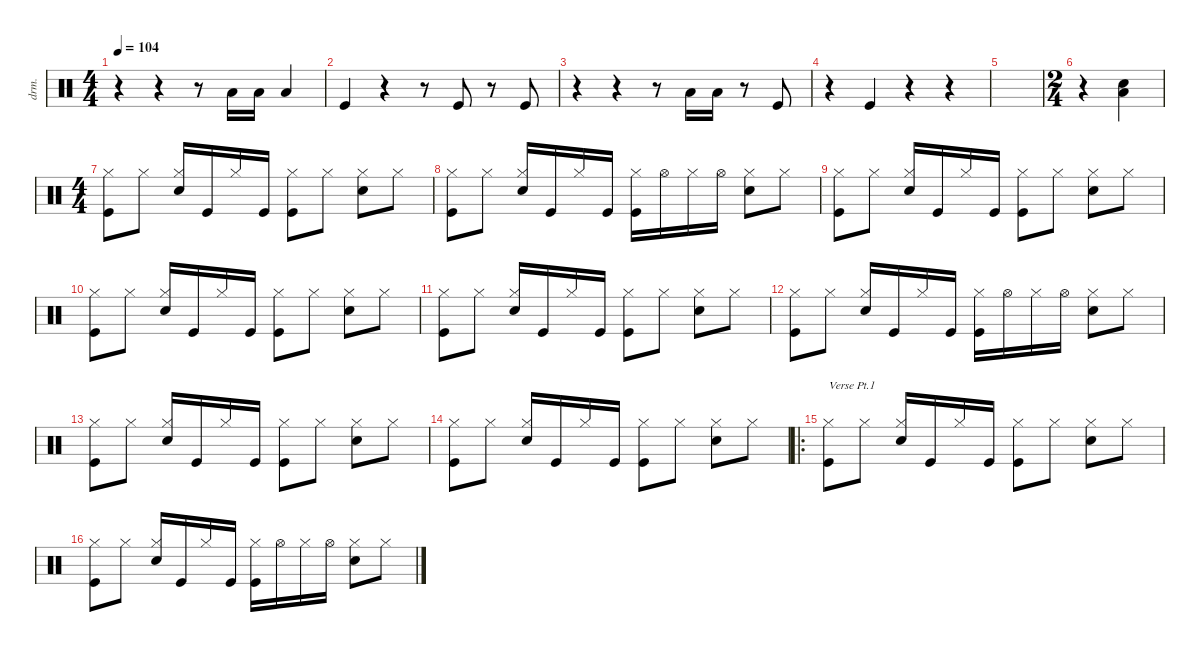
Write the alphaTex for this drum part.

\defaultSystemsLayout 4
\hideDynamics
\bracketExtendMode nobrackets
\otherSystemsTrackNameOrientation horizontal
\track ("Drumkit" "drm.") {instrument percussion}
\staff {score}
\articulation defaults
\ts (4 4)
\tempo 104
\clef neutral
\ks c
r.4{dy mf beam Down} r.4{beam Down} r.8{beam Down} "Low Tom (hit)".16{beam Up} "Low Tom (hit)".16{beam Up} "Low Tom (hit)".4{beam Up} |
"Kick (hit)".4{beam Up} r.4{beam Up} r.8{beam Up} "Kick (hit)".8{beam Up} r.8{beam Up} "Kick (hit)".8{beam Up} |
r.4{beam Down} r.4{beam Down} r.8{beam Down} "Low Tom (hit)".16{beam Up} "Low Tom (hit)".16{beam Up} r.8{beam Up} "Kick (hit)".8{beam Up} |
r.4{beam Down} "Kick (hit)".4{beam Up} r.4{beam Up} r.4{beam Up} |
\beaming (8 2 2 2 2)
|
\ts (2 4)
\beaming (8 2 2)
r.4{beam Down} ("Low Tom (hit)" "Snare (hit) 2").4{beam Down} |
\ts (4 4)
\beaming (8 2 2 2 2)
("Kick (hit)" "Hi-Hat (closed)").8{beam Down} "Hi-Hat (closed)".8{beam Down} ("Hi-Hat (closed)" "Snare (hit) 2").16{beam Up} "Kick (hit)".16{beam Up} "Hi-Hat (closed)".16{beam Up} "Kick (hit)".16{beam Up} ("Hi-Hat (closed)" "Kick (hit)").8{beam Down} "Hi-Hat (closed)".8{beam Down} ("Hi-Hat (closed)" "Snare (hit) 2").8{beam Down} "Hi-Hat (closed)".8{beam Down} |
("Kick (hit)" "Hi-Hat (closed)").8{beam Down} "Hi-Hat (closed)".8{beam Down} ("Hi-Hat (closed)" "Snare (hit) 2").16{beam Up} "Kick (hit)".16{beam Up} "Hi-Hat (closed)".16{beam Up} "Kick (hit)".16{beam Up} ("Kick (hit)" "Hi-Hat (closed)").16{beam Down} "Hi-Hat (open)".16{beam Down} "Hi-Hat (closed)".16{beam Down} "Hi-Hat (open)".16{beam Down} ("Snare (hit) 2" "Hi-Hat (closed)").8{beam Down} "Hi-Hat (closed)".8{beam Down} |
("Kick (hit)" "Hi-Hat (closed)").8{beam Down} "Hi-Hat (closed)".8{beam Down} ("Hi-Hat (closed)" "Snare (hit) 2").16{beam Up} "Kick (hit)".16{beam Up} "Hi-Hat (closed)".16{beam Up} "Kick (hit)".16{beam Up} ("Hi-Hat (closed)" "Kick (hit)").8{beam Down} "Hi-Hat (closed)".8{beam Down} ("Hi-Hat (closed)" "Snare (hit) 2").8{beam Down} "Hi-Hat (closed)".8{beam Down} |
("Kick (hit)" "Hi-Hat (closed)").8{beam Down} "Hi-Hat (closed)".8{beam Down} ("Hi-Hat (closed)" "Snare (hit) 2").16{beam Up} "Kick (hit)".16{beam Up} "Hi-Hat (closed)".16{beam Up} "Kick (hit)".16{beam Up} ("Hi-Hat (closed)" "Kick (hit)").8{beam Down} "Hi-Hat (closed)".8{beam Down} ("Hi-Hat (closed)" "Snare (hit) 2").8{beam Down} "Hi-Hat (closed)".8{beam Down} |
("Kick (hit)" "Hi-Hat (closed)").8{beam Down} "Hi-Hat (closed)".8{beam Down} ("Hi-Hat (closed)" "Snare (hit) 2").16{beam Up} "Kick (hit)".16{beam Up} "Hi-Hat (closed)".16{beam Up} "Kick (hit)".16{beam Up} ("Hi-Hat (closed)" "Kick (hit)").8{beam Down} "Hi-Hat (closed)".8{beam Down} ("Hi-Hat (closed)" "Snare (hit) 2").8{beam Down} "Hi-Hat (closed)".8{beam Down} |
("Kick (hit)" "Hi-Hat (closed)").8{beam Down} "Hi-Hat (closed)".8{beam Down} ("Hi-Hat (closed)" "Snare (hit) 2").16{beam Up} "Kick (hit)".16{beam Up} "Hi-Hat (closed)".16{beam Up} "Kick (hit)".16{beam Up} ("Kick (hit)" "Hi-Hat (closed)").16{beam Down} "Hi-Hat (open)".16{beam Down} "Hi-Hat (closed)".16{beam Down} "Hi-Hat (open)".16{beam Down} ("Snare (hit) 2" "Hi-Hat (closed)").8{beam Down} "Hi-Hat (closed)".8{beam Down} |
("Kick (hit)" "Hi-Hat (closed)").8{beam Down} "Hi-Hat (closed)".8{beam Down} ("Hi-Hat (closed)" "Snare (hit) 2").16{beam Up} "Kick (hit)".16{beam Up} "Hi-Hat (closed)".16{beam Up} "Kick (hit)".16{beam Up} ("Hi-Hat (closed)" "Kick (hit)").8{beam Down} "Hi-Hat (closed)".8{beam Down} ("Hi-Hat (closed)" "Snare (hit) 2").8{beam Down} "Hi-Hat (closed)".8{beam Down} |
("Kick (hit)" "Hi-Hat (closed)").8{beam Down} "Hi-Hat (closed)".8{beam Down} ("Hi-Hat (closed)" "Snare (hit) 2").16{beam Up} "Kick (hit)".16{beam Up} "Hi-Hat (closed)".16{beam Up} "Kick (hit)".16{beam Up} ("Hi-Hat (closed)" "Kick (hit)").8{beam Down} "Hi-Hat (closed)".8{beam Down} ("Hi-Hat (closed)" "Snare (hit) 2").8{beam Down} "Hi-Hat (closed)".8{beam Down} |
\ro
("Kick (hit)" "Hi-Hat (closed)").8{txt "Verse Pt.1" beam Down} "Hi-Hat (closed)".8{beam Down} ("Hi-Hat (closed)" "Snare (hit) 2").16{beam Up} "Kick (hit)".16{beam Up} "Hi-Hat (closed)".16{beam Up} "Kick (hit)".16{beam Up} ("Hi-Hat (closed)" "Kick (hit)").8{beam Down} "Hi-Hat (closed)".8{beam Down} ("Hi-Hat (closed)" "Snare (hit) 2").8{beam Down} "Hi-Hat (closed)".8{beam Down} |
("Kick (hit)" "Hi-Hat (closed)").8{beam Down} "Hi-Hat (closed)".8{beam Down} ("Hi-Hat (closed)" "Snare (hit) 2").16{beam Up} "Kick (hit)".16{beam Up} "Hi-Hat (closed)".16{beam Up} "Kick (hit)".16{beam Up} ("Kick (hit)" "Hi-Hat (closed)").16{beam Down} "Hi-Hat (open)".16{beam Down} "Hi-Hat (closed)".16{beam Down} "Hi-Hat (open)".16{beam Down} ("Snare (hit) 2" "Hi-Hat (closed)").8{beam Down} "Hi-Hat (closed)".8{beam Down}
